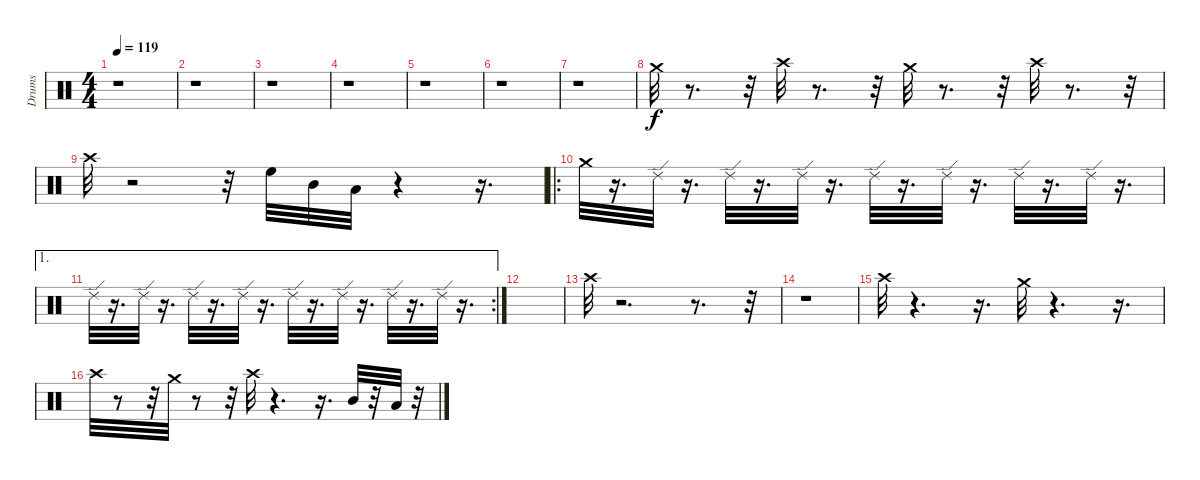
\track ("Drums" "Drums") {instrument percussion}
\staff {score}
\articulation defaults
\ts (4 4)
\tempo 119
\clef neutral
\ks c
r.1{dy f} |
r.1 |
r.1 |
r.1 |
r.1 |
r.1 |
r.1 |
"Crash medium (hit)".32 r.8{d} r.32 "Crash high (hit)".32 r.8{d} r.32 "Crash medium (hit)".32 r.8{d} r.32 "Crash high (hit)".32 r.8{d} r.32 |
"Crash high (hit)".32 r.2 r.32 "High Floor Tom (hit)".32 "Mid Tom (hit)".32 "Low Tom (hit)".32 r.4 r.16{d} |
\ro "Crash medium (hit)".32
r.16{d} "Ride (edge) 2".32 r.16{d} "Ride (edge) 2".32 r.16{d} "Ride (edge) 2".32 r.16{d} "Ride (edge) 2".32 r.16{d} "Ride (edge) 2".32 r.16{d} "Ride (edge) 2".32 r.16{d} "Ride (edge) 2".32 r.16{d} |
\ae 1
\rc 2 "Ride (edge) 2".32
r.16{d} "Ride (edge) 2".32 r.16{d} "Ride (edge) 2".32 r.16{d} "Ride (edge) 2".32 r.16{d} "Ride (edge) 2".32 r.16{d} "Ride (edge) 2".32 r.16{d} "Ride (edge) 2".32 r.16{d} "Ride (edge) 2".32 r.16{d} |
|
"Crash high (hit)".32 r.2{d} r.8{d} r.32 |
r.1 |
"Crash high (hit)".32 r.4{d} r.16{d} "Crash medium (hit)".32 r.4{d} r.16{d} |
"Crash high (hit)".32 r.8 r.32 "Crash medium (hit)".32 r.8 r.32 "Crash high (hit)".32 r.4{d} r.16{d} "Mid Tom (hit)".32 r.32 "Low Tom (hit)".32 r.32
